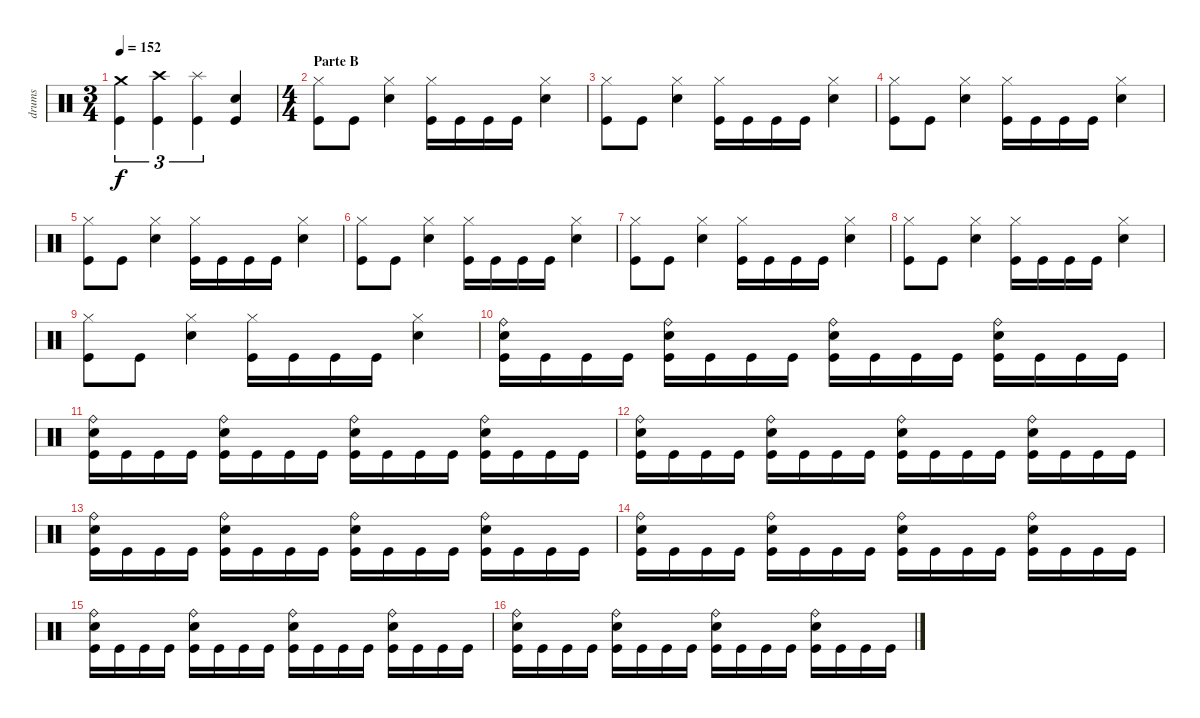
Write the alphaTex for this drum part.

\track ("drums" "drums") {instrument percussion}
\staff {score}
\articulation defaults
\ts (3 4)
\tempo 152
\clef neutral
\ks c
("Kick (hit)" "Crash medium (hit)").4{tu (3 2) dy f} ("Kick (hit)" "Crash high (hit)").4{tu (3 2)} ("Kick (hit)" "Splash (hit)").4{tu (3 2)} ("Kick (hit)" "Snare (hit) 2").4 |
\ts (4 4)
\section ("" "Parte B")
("Kick (hit)" "Hi-Hat (closed)").8 "Kick (hit)".8 ("Snare (hit) 2" "Hi-Hat (closed)").4 ("Kick (hit)" "Hi-Hat (closed)").16 "Kick (hit)".16 "Kick (hit)".16 "Kick (hit)".16 ("Snare (hit) 2" "Hi-Hat (closed)").4 |
("Kick (hit)" "Hi-Hat (closed)").8 "Kick (hit)".8 ("Snare (hit) 2" "Hi-Hat (closed)").4 ("Kick (hit)" "Hi-Hat (closed)").16 "Kick (hit)".16 "Kick (hit)".16 "Kick (hit)".16 ("Snare (hit) 2" "Hi-Hat (closed)").4 |
("Kick (hit)" "Hi-Hat (closed)").8 "Kick (hit)".8 ("Snare (hit) 2" "Hi-Hat (closed)").4 ("Kick (hit)" "Hi-Hat (closed)").16 "Kick (hit)".16 "Kick (hit)".16 "Kick (hit)".16 ("Snare (hit) 2" "Hi-Hat (closed)").4 |
("Kick (hit)" "Hi-Hat (closed)").8 "Kick (hit)".8 ("Snare (hit) 2" "Hi-Hat (closed)").4 ("Kick (hit)" "Hi-Hat (closed)").16 "Kick (hit)".16 "Kick (hit)".16 "Kick (hit)".16 ("Snare (hit) 2" "Hi-Hat (closed)").4 |
("Kick (hit)" "Hi-Hat (closed)").8 "Kick (hit)".8 ("Snare (hit) 2" "Hi-Hat (closed)").4 ("Kick (hit)" "Hi-Hat (closed)").16 "Kick (hit)".16 "Kick (hit)".16 "Kick (hit)".16 ("Snare (hit) 2" "Hi-Hat (closed)").4 |
("Kick (hit)" "Hi-Hat (closed)").8 "Kick (hit)".8 ("Snare (hit) 2" "Hi-Hat (closed)").4 ("Kick (hit)" "Hi-Hat (closed)").16 "Kick (hit)".16 "Kick (hit)".16 "Kick (hit)".16 ("Snare (hit) 2" "Hi-Hat (closed)").4 |
("Kick (hit)" "Hi-Hat (closed)").8 "Kick (hit)".8 ("Snare (hit) 2" "Hi-Hat (closed)").4 ("Kick (hit)" "Hi-Hat (closed)").16 "Kick (hit)".16 "Kick (hit)".16 "Kick (hit)".16 ("Snare (hit) 2" "Hi-Hat (closed)").4 |
("Kick (hit)" "Hi-Hat (closed)").8 "Kick (hit)".8 ("Snare (hit) 2" "Hi-Hat (closed)").4 ("Kick (hit)" "Hi-Hat (closed)").16 "Kick (hit)".16 "Kick (hit)".16 "Kick (hit)".16 ("Snare (hit) 2" "Hi-Hat (closed)").4 |
("Kick (hit)" "Snare (hit) 2" "Ride (bell)").16 "Kick (hit)".16 "Kick (hit)".16 "Kick (hit)".16 ("Kick (hit)" "Snare (hit) 2" "Ride (bell)").16 "Kick (hit)".16 "Kick (hit)".16 "Kick (hit)".16 ("Kick (hit)" "Snare (hit) 2" "Ride (bell)").16 "Kick (hit)".16 "Kick (hit)".16 "Kick (hit)".16 ("Kick (hit)" "Snare (hit) 2" "Ride (bell)").16 "Kick (hit)".16 "Kick (hit)".16 "Kick (hit)".16 |
("Kick (hit)" "Snare (hit) 2" "Ride (bell)").16 "Kick (hit)".16 "Kick (hit)".16 "Kick (hit)".16 ("Kick (hit)" "Snare (hit) 2" "Ride (bell)").16 "Kick (hit)".16 "Kick (hit)".16 "Kick (hit)".16 ("Kick (hit)" "Snare (hit) 2" "Ride (bell)").16 "Kick (hit)".16 "Kick (hit)".16 "Kick (hit)".16 ("Kick (hit)" "Snare (hit) 2" "Ride (bell)").16 "Kick (hit)".16 "Kick (hit)".16 "Kick (hit)".16 |
("Kick (hit)" "Snare (hit) 2" "Ride (bell)").16 "Kick (hit)".16 "Kick (hit)".16 "Kick (hit)".16 ("Kick (hit)" "Snare (hit) 2" "Ride (bell)").16 "Kick (hit)".16 "Kick (hit)".16 "Kick (hit)".16 ("Kick (hit)" "Snare (hit) 2" "Ride (bell)").16 "Kick (hit)".16 "Kick (hit)".16 "Kick (hit)".16 ("Kick (hit)" "Snare (hit) 2" "Ride (bell)").16 "Kick (hit)".16 "Kick (hit)".16 "Kick (hit)".16 |
("Kick (hit)" "Snare (hit) 2" "Ride (bell)").16 "Kick (hit)".16 "Kick (hit)".16 "Kick (hit)".16 ("Kick (hit)" "Snare (hit) 2" "Ride (bell)").16 "Kick (hit)".16 "Kick (hit)".16 "Kick (hit)".16 ("Kick (hit)" "Snare (hit) 2" "Ride (bell)").16 "Kick (hit)".16 "Kick (hit)".16 "Kick (hit)".16 ("Kick (hit)" "Snare (hit) 2" "Ride (bell)").16 "Kick (hit)".16 "Kick (hit)".16 "Kick (hit)".16 |
("Kick (hit)" "Snare (hit) 2" "Ride (bell)").16 "Kick (hit)".16 "Kick (hit)".16 "Kick (hit)".16 ("Kick (hit)" "Snare (hit) 2" "Ride (bell)").16 "Kick (hit)".16 "Kick (hit)".16 "Kick (hit)".16 ("Kick (hit)" "Snare (hit) 2" "Ride (bell)").16 "Kick (hit)".16 "Kick (hit)".16 "Kick (hit)".16 ("Kick (hit)" "Snare (hit) 2" "Ride (bell)").16 "Kick (hit)".16 "Kick (hit)".16 "Kick (hit)".16 |
("Kick (hit)" "Snare (hit) 2" "Ride (bell)").16 "Kick (hit)".16 "Kick (hit)".16 "Kick (hit)".16 ("Kick (hit)" "Snare (hit) 2" "Ride (bell)").16 "Kick (hit)".16 "Kick (hit)".16 "Kick (hit)".16 ("Kick (hit)" "Snare (hit) 2" "Ride (bell)").16 "Kick (hit)".16 "Kick (hit)".16 "Kick (hit)".16 ("Kick (hit)" "Snare (hit) 2" "Ride (bell)").16 "Kick (hit)".16 "Kick (hit)".16 "Kick (hit)".16 |
("Kick (hit)" "Snare (hit) 2" "Ride (bell)").16 "Kick (hit)".16 "Kick (hit)".16 "Kick (hit)".16 ("Kick (hit)" "Snare (hit) 2" "Ride (bell)").16 "Kick (hit)".16 "Kick (hit)".16 "Kick (hit)".16 ("Kick (hit)" "Snare (hit) 2" "Ride (bell)").16 "Kick (hit)".16 "Kick (hit)".16 "Kick (hit)".16 ("Kick (hit)" "Snare (hit) 2" "Ride (bell)").16 "Kick (hit)".16 "Kick (hit)".16 "Kick (hit)".16
